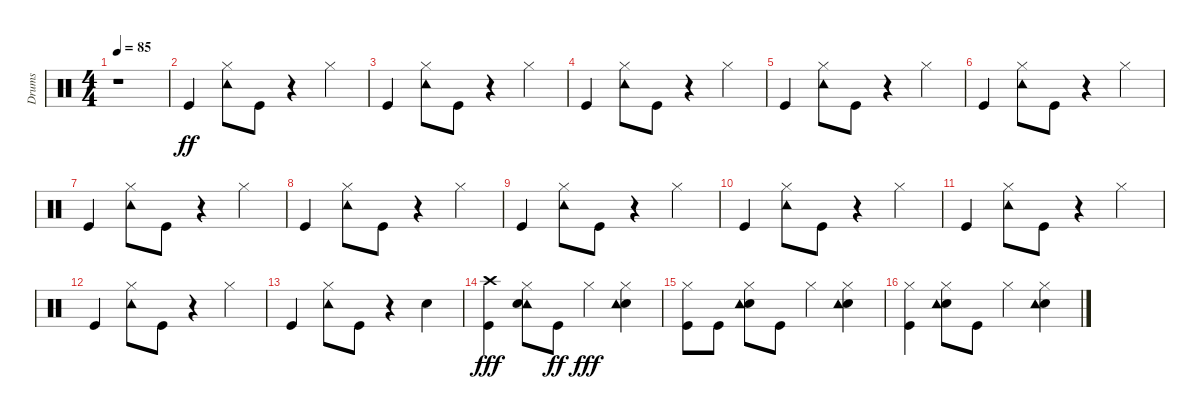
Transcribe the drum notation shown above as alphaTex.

\track ("Drums" "Drums") {instrument percussion}
\staff {score}
\articulation defaults
\ts (4 4)
\tempo 85
\clef neutral
\ks c
r.1{dy ff} |
"Kick (hit)".4 ("Hi-Hat (closed)" "Tambourine (hit)").8 "Kick (hit)".8 r.4 "Hi-Hat (closed)".4 |
"Kick (hit)".4 ("Hi-Hat (closed)" "Tambourine (hit)").8 "Kick (hit)".8 r.4 "Hi-Hat (closed)".4 |
"Kick (hit)".4 ("Hi-Hat (closed)" "Tambourine (hit)").8 "Kick (hit)".8 r.4 "Hi-Hat (closed)".4 |
"Kick (hit)".4 ("Hi-Hat (closed)" "Tambourine (hit)").8 "Kick (hit)".8 r.4 "Hi-Hat (closed)".4 |
"Kick (hit)".4 ("Hi-Hat (closed)" "Tambourine (hit)").8 "Kick (hit)".8 r.4 "Hi-Hat (closed)".4 |
"Kick (hit)".4 ("Hi-Hat (closed)" "Tambourine (hit)").8 "Kick (hit)".8 r.4 "Hi-Hat (closed)".4 |
"Kick (hit)".4 ("Hi-Hat (closed)" "Tambourine (hit)").8 "Kick (hit)".8 r.4 "Hi-Hat (closed)".4 |
"Kick (hit)".4 ("Hi-Hat (closed)" "Tambourine (hit)").8 "Kick (hit)".8 r.4 "Hi-Hat (closed)".4 |
"Kick (hit)".4 ("Hi-Hat (closed)" "Tambourine (hit)").8 "Kick (hit)".8 r.4 "Hi-Hat (closed)".4 |
"Kick (hit)".4 ("Hi-Hat (closed)" "Tambourine (hit)").8 "Kick (hit)".8 r.4 "Hi-Hat (closed)".4 |
"Kick (hit)".4 ("Hi-Hat (closed)" "Tambourine (hit)").8 "Kick (hit)".8 r.4 "Hi-Hat (closed)".4 |
"Kick (hit)".4 ("Hi-Hat (closed)" "Tambourine (hit)").8 "Kick (hit)".8 r.4 "Snare (hit) 2".4 |
("Kick (hit)" "Crash high (hit)").4{dy fff} ("Tambourine (hit)" "Snare (hit) 2" "Hi-Hat (closed)").8 "Kick (hit)".8{dy ff} "Hi-Hat (closed)".4{dy fff} ("Hi-Hat (closed)" "Snare (hit) 2" "Tambourine (hit)").4 |
("Hi-Hat (closed)" "Kick (hit)").8 "Kick (hit)".8 ("Hi-Hat (closed)" "Snare (hit) 2" "Tambourine (hit)").8 "Kick (hit)".8 "Hi-Hat (closed)".4 ("Snare (hit) 2" "Hi-Hat (closed)" "Tambourine (hit)").4 |
("Kick (hit)" "Hi-Hat (closed)").4 ("Hi-Hat (closed)" "Snare (hit) 2" "Tambourine (hit)").8 "Kick (hit)".8 "Hi-Hat (closed)".4 ("Snare (hit) 2" "Hi-Hat (closed)" "Tambourine (hit)").4
